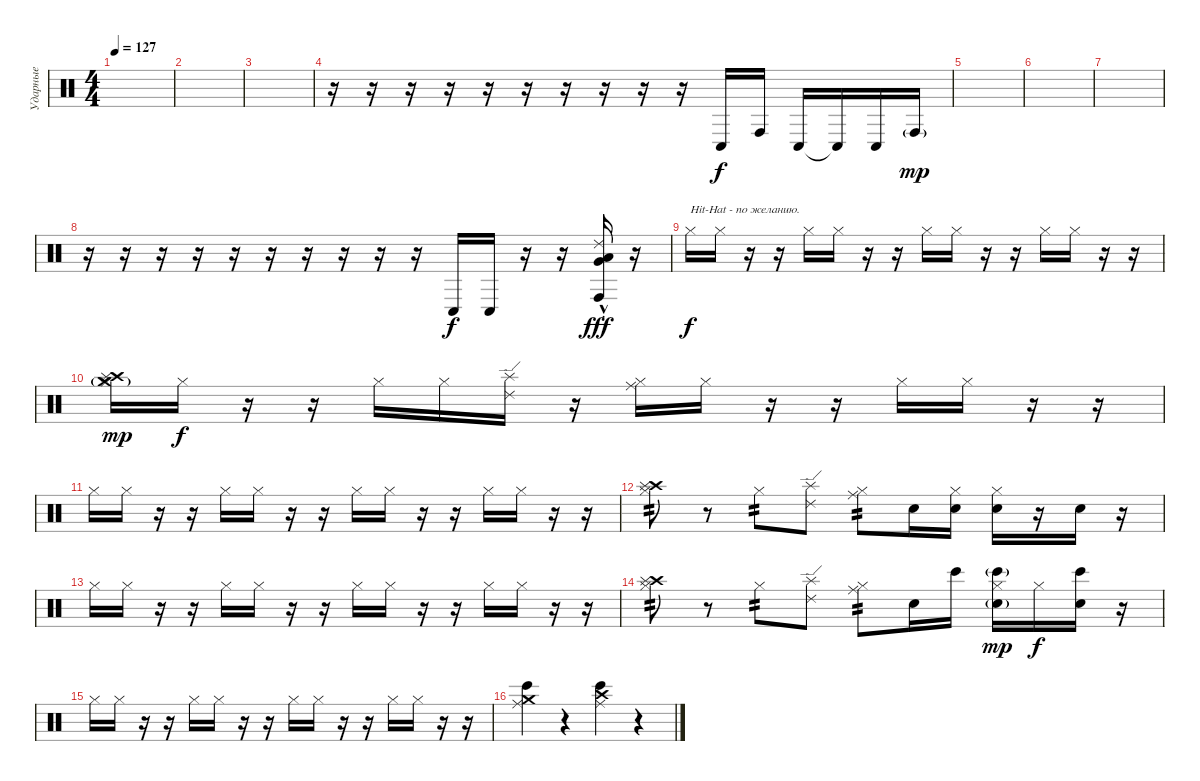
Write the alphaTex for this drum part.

\track ("Ударные" "Ударные") {instrument percussion}
\staff {score}
\articulation defaults
\ts (4 4)
\tempo 127
\clef neutral
\ks c
|
|
|
r.16 r.16 r.16 r.16 r.16 r.16 r.16 r.16 r.16 r.16 "Conga low (hit)".16 "Conga high (hit)".16 "Conga low (hit)".16 "Conga low (hit)"{t}.16 "Conga low (hit)".16 "Conga high (hit)"{g}.16{dy mp} |
|
|
|
r.16 r.16 r.16 r.16 r.16 r.16 r.16 r.16 r.16 r.16 "Conga low (hit)".16{dy f} "Conga low (hit)".16 r.16 r.16 ("Conga high (hit)" "Very Low Tom (hit)"{hac} "Low Floor Tom (hit)"{hac} "Ride (choke) 2").16{dy fff balance 16} r.16 |
"Hi-Hat (closed)".16{txt "Hit-Hat - по желанию." dy f balance 8} "Hi-Hat (closed)".16 r.16 r.16 "Hi-Hat (closed)".16 "Hi-Hat (closed)".16 r.16 r.16 "Hi-Hat (closed)".16 "Hi-Hat (closed)".16 r.16 r.16 "Hi-Hat (closed)".16 "Hi-Hat (closed)".16 r.16 r.16 |
("Crash medium (hit)"{g} "Crash high (hit)" "Splash (hit)" "Hi-Hat (closed)").16{dy mp} "Hi-Hat (closed)".16{dy f} r.16 r.16 "Hi-Hat (closed)".16 "Hi-Hat (closed)".16 ("Splash (hit)" "Ride (edge) 2").16 r.16 ("Ride (middle)" "Hi-Hat (closed)").16 "Hi-Hat (closed)".16 r.16 r.16 "Hi-Hat (closed)".16 "Hi-Hat (closed)".16 r.16 r.16 |
"Hi-Hat (closed)".16 "Hi-Hat (closed)".16 r.16 r.16 "Hi-Hat (closed)".16 "Hi-Hat (closed)".16 r.16 r.16 "Hi-Hat (closed)".16 "Hi-Hat (closed)".16 r.16 r.16 "Hi-Hat (closed)".16 "Hi-Hat (closed)".16 r.16 r.16 |
("Crash high (hit)" "Splash (hit)" "Hi-Hat (closed)").8{tp 2} r.8 "Hi-Hat (closed)".8{tp 2} ("Splash (hit)" "Ride (edge) 2").8 ("Ride (middle)" "Hi-Hat (closed)").8{tp 2} "Hand Clap (hit)".16 ("Hand Clap (hit)" "Hi-Hat (closed)").16 ("Hand Clap (hit)" "Hi-Hat (closed)").16 r.16 "Hand Clap (hit)".16 r.16 |
"Hi-Hat (closed)".16 "Hi-Hat (closed)".16 r.16 r.16 "Hi-Hat (closed)".16 "Hi-Hat (closed)".16 r.16 r.16 "Hi-Hat (closed)".16 "Hi-Hat (closed)".16 r.16 r.16 "Hi-Hat (closed)".16 "Hi-Hat (closed)".16 r.16 r.16 |
("Crash high (hit)" "Splash (hit)" "Hi-Hat (closed)").8{tp 2} r.8 "Hi-Hat (closed)".8{tp 2} ("Splash (hit)" "Ride (edge) 2").8 ("Ride (middle)" "Hi-Hat (closed)").8{tp 2} "Hand Clap (hit)".16 "Bongo High (hit)".16 ("Hand Clap (hit)"{g} "Bongo High (hit)"{g} "Hi-Hat (closed)").16{dy mp} "Hi-Hat (closed)".16{dy f} ("Hand Clap (hit)" "Bongo High (hit)").16 r.16 |
"Hi-Hat (closed)".16 "Hi-Hat (closed)".16 r.16 r.16 "Hi-Hat (closed)".16 "Hi-Hat (closed)".16 r.16 r.16 "Hi-Hat (closed)".16 "Hi-Hat (closed)".16 r.16 r.16 "Hi-Hat (closed)".16 "Hi-Hat (closed)".16 r.16 r.16 |
("Crash medium (hit)" "Ride (middle)" "Bongo High (hit)").4 r.4 ("Crash high (hit)" "Ride (middle)" "Bongo High (hit)").4 r.4
